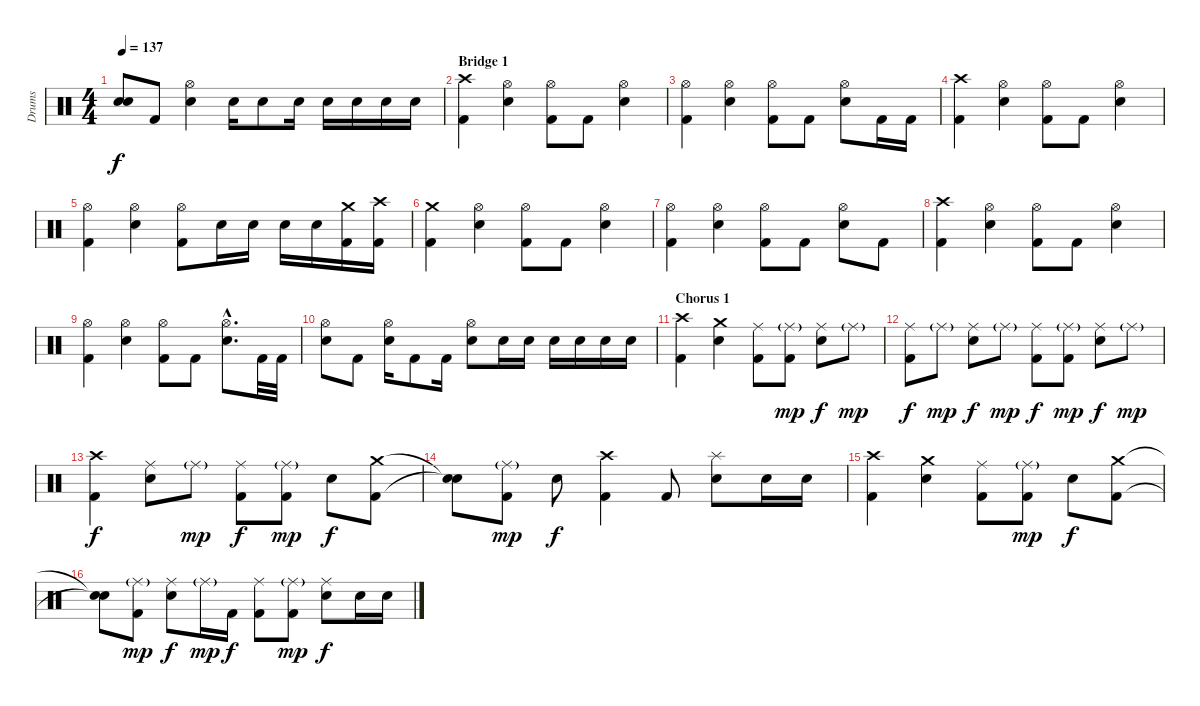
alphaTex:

\track ("Drums" "Drums") {instrument percussion}
\staff {score}
\articulation defaults
\ts (4 4)
\tempo 137
\clef neutral
\ks c
("Snare (hit)"{t} "Snare (hit)"{t}).8{dy f} "Kick (hit) 2".8 ("Hi-Hat (open)" "Snare (hit) 2").4 "Snare (hit) 2".16 "Snare (hit) 2".8 "Snare (hit) 2".16 "Snare (hit) 2".16 "Snare (hit) 2".16 "Snare (hit) 2".16 "Snare (hit) 2".16 |
\section ("" "Bridge 1")
("Crash high (hit)" "Kick (hit) 2").4 ("Hi-Hat (open)" "Snare (hit) 2").4 ("Hi-Hat (open)" "Kick (hit) 2").8 "Kick (hit) 2".8 ("Hi-Hat (open)" "Snare (hit) 2").4 |
("Hi-Hat (open)" "Kick (hit) 2").4 ("Hi-Hat (open)" "Snare (hit) 2").4 ("Hi-Hat (open)" "Kick (hit) 2").8 "Kick (hit) 2".8 ("Hi-Hat (open)" "Snare (hit) 2").8 "Kick (hit) 2".16 "Kick (hit) 2".16 |
("Crash high (hit)" "Kick (hit) 2").4 ("Hi-Hat (open)" "Snare (hit) 2").4 ("Hi-Hat (open)" "Kick (hit) 2").8 "Kick (hit) 2".8 ("Hi-Hat (open)" "Snare (hit) 2").4 |
("Hi-Hat (open)" "Kick (hit) 2").4 ("Hi-Hat (open)" "Snare (hit) 2").4 ("Hi-Hat (open)" "Kick (hit) 2").8 "Snare (hit) 2".16 "Snare (hit) 2".16 "Snare (hit) 2".16 "Snare (hit) 2".16 ("Crash medium (hit)" "Kick (hit) 2").16 ("Crash high (hit)" "Kick (hit) 2").16 |
("Crash medium (hit)" "Kick (hit) 2").4 ("Hi-Hat (open)" "Snare (hit) 2").4 ("Hi-Hat (open)" "Kick (hit) 2").8 "Kick (hit) 2".8 ("Hi-Hat (open)" "Snare (hit) 2").4 |
("Hi-Hat (open)" "Kick (hit) 2").4 ("Hi-Hat (open)" "Snare (hit) 2").4 ("Hi-Hat (open)" "Kick (hit) 2").8 "Kick (hit) 2".8 ("Hi-Hat (open)" "Snare (hit) 2").8 "Kick (hit) 2".8 |
("Crash high (hit)" "Kick (hit) 2").4 ("Hi-Hat (open)" "Snare (hit) 2").4 ("Hi-Hat (open)" "Kick (hit) 2").8 "Kick (hit) 2".8 ("Hi-Hat (open)" "Snare (hit) 2").4 |
("Hi-Hat (open)" "Kick (hit) 2").4 ("Hi-Hat (open)" "Snare (hit) 2").4 ("Hi-Hat (open)" "Kick (hit) 2").8 "Kick (hit) 2".8 ("Hi-Hat (open)"{hac} "Snare (hit) 2"{hac}).8{d} "Kick (hit) 2".32 "Kick (hit) 2".32 |
("Hi-Hat (open)" "Snare (hit) 2").8 "Kick (hit) 2".8 ("Hi-Hat (open)" "Snare (hit) 2").16 "Kick (hit) 2".8 "Kick (hit) 2".16 ("Hi-Hat (open)" "Snare (hit) 2").8 "Snare (hit) 2".16 "Snare (hit) 2".16 "Snare (hit) 2".16 "Snare (hit) 2".16 "Snare (hit) 2".16 "Snare (hit) 2".16 |
\section ("" "Chorus 1")
("Crash high (hit)" "Kick (hit) 2").4 ("Crash medium (hit)" "Snare (hit) 2").4 ("Ride (middle)" "Kick (hit) 2").8 ("Ride (middle)"{g} "Kick (hit) 2").8{dy mp} ("Ride (middle)" "Snare (hit) 2").8{dy f} "Ride (middle)"{g}.8{dy mp} |
("Ride (middle)" "Kick (hit) 2").8{dy f} "Ride (middle)"{g}.8{dy mp} ("Ride (middle)" "Snare (hit) 2").8{dy f} "Ride (middle)"{g}.8{dy mp} ("Ride (middle)" "Kick (hit) 2").8{dy f} ("Ride (middle)"{g} "Kick (hit) 2").8{dy mp} ("Ride (middle)" "Snare (hit) 2").8{dy f} "Ride (middle)"{g}.8{dy mp} |
("Crash high (hit)" "Kick (hit) 2").4{dy f} ("Ride (middle)" "Snare (hit) 2").8 "Ride (middle)"{g}.8{dy mp} ("Ride (middle)" "Kick (hit) 2").8{dy f} ("Ride (middle)"{g} "Kick (hit) 2").8{dy mp} "Snare (hit) 2".8{dy f} ("Crash medium (hit)" "Kick (hit) 2").8 |
("Snare (hit)"{t} "Snare (hit)"{t}).8 ("Ride (middle)"{g} "Kick (hit) 2").8{dy mp} "Snare (hit) 2".8{dy f} ("Crash high (hit)" "Kick (hit) 2").4 "Kick (hit) 2".8 ("Splash (hit)" "Snare (hit) 2").8 "Snare (hit) 2".16 "Snare (hit) 2".16 |
("Crash high (hit)" "Kick (hit) 2").4 ("Crash medium (hit)" "Snare (hit) 2").4 ("Ride (middle)" "Kick (hit) 2").8 ("Ride (middle)"{g} "Kick (hit) 2").8{dy mp} "Snare (hit) 2".8{dy f} ("Crash medium (hit)" "Kick (hit) 2").8 |
("Snare (hit)"{t} "Snare (hit)"{t}).8 ("Ride (middle)"{g} "Kick (hit) 2").8{dy mp} ("Ride (middle)" "Snare (hit) 2").8{dy f} "Ride (middle)"{g}.16{dy mp} "Kick (hit) 2".16{dy f} ("Ride (middle)" "Kick (hit) 2").8 ("Ride (middle)"{g} "Kick (hit) 2").8{dy mp} ("Ride (middle)" "Snare (hit) 2").8{dy f} "Snare (hit) 2".16 "Snare (hit) 2".16
